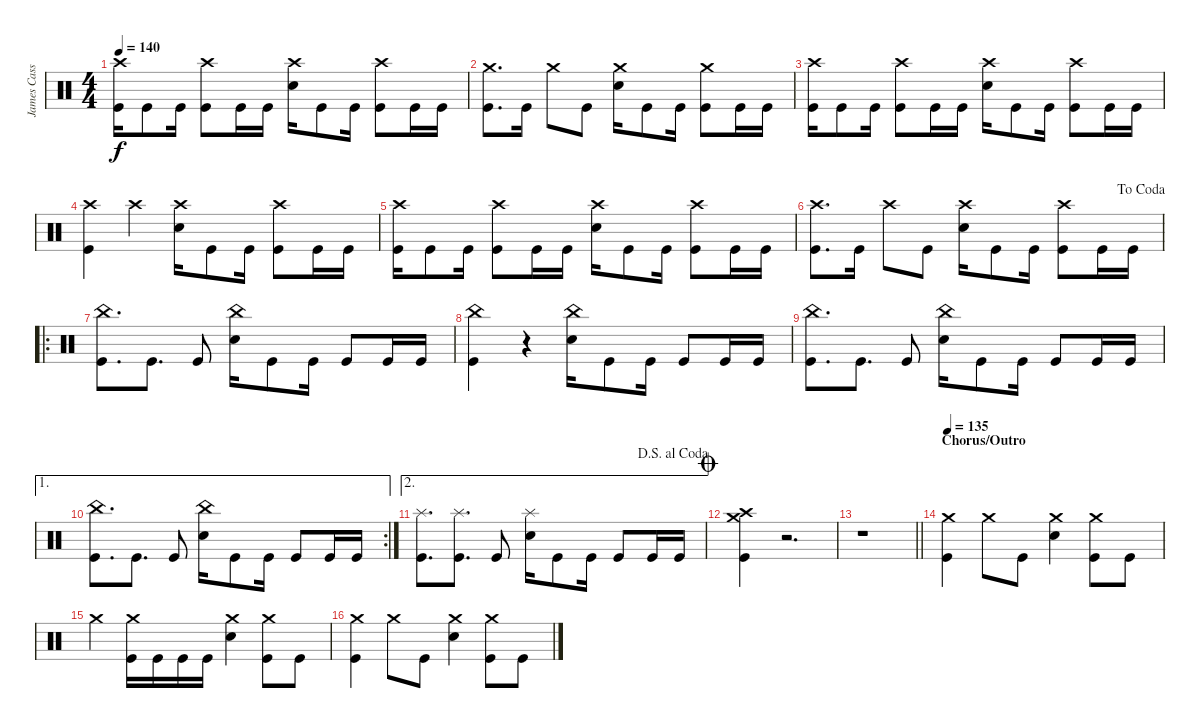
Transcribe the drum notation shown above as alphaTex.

\track ("James Cassells" "James Cass") {instrument percussion}
\staff {score}
\articulation defaults
\ts (4 4)
\tempo 140
\clef neutral
\ks c
("Crash high (hit)" "Kick (hit)").16{dy f} "Kick (hit)".8 "Kick (hit)".16 ("Crash high (hit)" "Kick (hit)").8 "Kick (hit)".16 "Kick (hit)".16 ("Crash high (hit)" "Snare (hit) 2").16 "Kick (hit)".8 "Kick (hit)".16 ("Crash high (hit)" "Kick (hit)").8 "Kick (hit)".16 "Kick (hit)".16 |
("Crash medium (hit)" "Kick (hit)").8{d} "Kick (hit)".16 "Crash medium (hit)".8 "Kick (hit)".8 ("Crash medium (hit)" "Snare (hit) 2").16 "Kick (hit)".8 "Kick (hit)".16 ("Crash medium (hit)" "Kick (hit)").8 "Kick (hit)".16 "Kick (hit)".16 |
("Crash high (hit)" "Kick (hit)").16 "Kick (hit)".8 "Kick (hit)".16 ("Crash high (hit)" "Kick (hit)").8 "Kick (hit)".16 "Kick (hit)".16 ("Crash high (hit)" "Snare (hit) 2").16 "Kick (hit)".8 "Kick (hit)".16 ("Crash high (hit)" "Kick (hit)").8 "Kick (hit)".16 "Kick (hit)".16 |
("Crash high (hit)" "Kick (hit)").4 "Crash high (hit)".4 ("Crash high (hit)" "Snare (hit) 2").16 "Kick (hit)".8 "Kick (hit)".16 ("Crash high (hit)" "Kick (hit)").8 "Kick (hit)".16 "Kick (hit)".16 |
("Crash high (hit)" "Kick (hit)").16 "Kick (hit)".8 "Kick (hit)".16 ("Crash high (hit)" "Kick (hit)").8 "Kick (hit)".16 "Kick (hit)".16 ("Crash high (hit)" "Snare (hit) 2").16 "Kick (hit)".8 "Kick (hit)".16 ("Crash high (hit)" "Kick (hit)").8 "Kick (hit)".16 "Kick (hit)".16 |
\jump dacoda
("Crash high (hit)" "Kick (hit)").8{d} "Kick (hit)".16 "Crash high (hit)".8 "Kick (hit)".8 ("Crash high (hit)" "Snare (hit) 2").16 "Kick (hit)".8 "Kick (hit)".16 ("Crash high (hit)" "Kick (hit)").8 "Kick (hit)".16 "Kick (hit)".16 |
\ro
("China (hit)" "Kick (hit)").8{d} "Kick (hit)".8{d} "Kick (hit)".8 ("China (hit)" "Snare (hit) 2").16 "Kick (hit)".8 "Kick (hit)".16 "Kick (hit)".8 "Kick (hit)".16 "Kick (hit)".16 |
("China (hit)" "Kick (hit)").4 r.4 ("China (hit)" "Snare (hit) 2").16 "Kick (hit)".8 "Kick (hit)".16 "Kick (hit)".8 "Kick (hit)".16 "Kick (hit)".16 |
("China (hit)" "Kick (hit)").8{d} "Kick (hit)".8{d} "Kick (hit)".8 ("China (hit)" "Snare (hit) 2").16 "Kick (hit)".8 "Kick (hit)".16 "Kick (hit)".8 "Kick (hit)".16 "Kick (hit)".16 |
\ae 1
\rc 2
("China (hit)" "Kick (hit)").8{d} "Kick (hit)".8{d} "Kick (hit)".8 ("China (hit)" "Snare (hit) 2").16 "Kick (hit)".8 "Kick (hit)".16 "Kick (hit)".8 "Kick (hit)".16 "Kick (hit)".16 |
\ae 2
\jump dalsegnoalcoda
("Splash (hit)" "Kick (hit)").8{d} ("Splash (hit)" "Kick (hit)").8{d} "Kick (hit)".8 ("Splash (hit)" "Snare (hit) 2").16 "Kick (hit)".8 "Kick (hit)".16 "Kick (hit)".8 "Kick (hit)".16 "Kick (hit)".16 |
\jump coda
("Crash high (hit)" "Crash medium (hit)" "Kick (hit)").4 r.2{d} |
\barLineRight lightlight
r.1 |
\section ("" "Chorus/Outro")
\tempo 135
("Crash medium (hit)" "Kick (hit)").4 "Crash medium (hit)".8 "Kick (hit)".8 ("Crash medium (hit)" "Snare (hit) 2").4 ("Crash medium (hit)" "Kick (hit)").8 "Kick (hit)".8 |
"Crash medium (hit)".4 ("Crash medium (hit)" "Kick (hit)").16 "Kick (hit)".16 "Kick (hit)".16 "Kick (hit)".16 ("Crash medium (hit)" "Snare (hit) 2").4 ("Crash medium (hit)" "Kick (hit)").8 "Kick (hit)".8 |
("Crash medium (hit)" "Kick (hit)").4 "Crash medium (hit)".8 "Kick (hit)".8 ("Crash medium (hit)" "Snare (hit) 2").4 ("Crash medium (hit)" "Kick (hit)").8 "Kick (hit)".8
